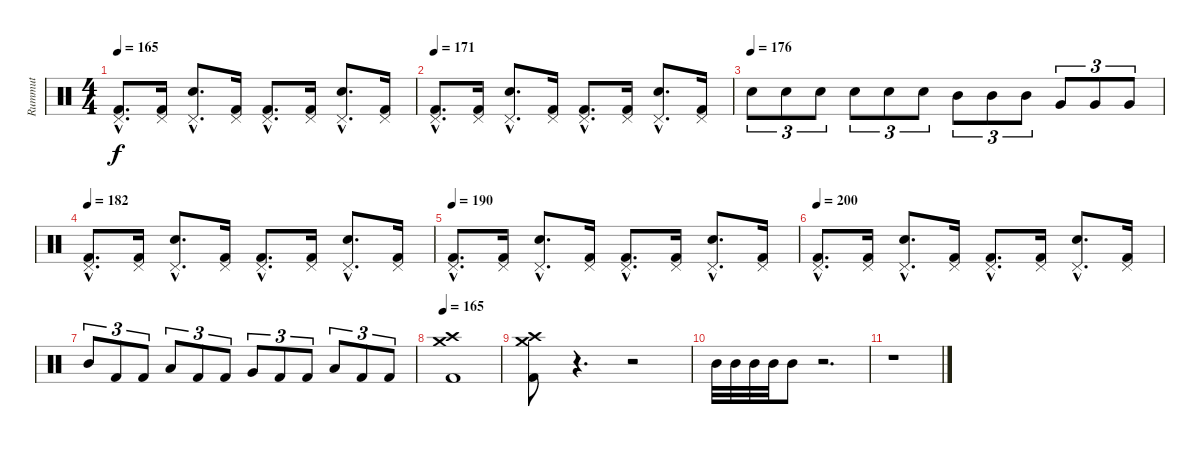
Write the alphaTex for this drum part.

\track ("Rummut" "Rummut") {instrument percussion}
\staff {score}
\articulation defaults
\ts (4 4)
\tempo 165
\clef neutral
\ks c
("Pedal Hi-Hat (hit)"{hac} "Kick (hit) 2"{hac}).8{d dy f} ("Pedal Hi-Hat (hit)" "Kick (hit) 2").16 ("Pedal Hi-Hat (hit)"{hac} "Snare (hit) 2"{hac}).8{d} ("Pedal Hi-Hat (hit)" "Kick (hit) 2").16 ("Pedal Hi-Hat (hit)"{hac} "Kick (hit) 2"{hac}).8{d} ("Pedal Hi-Hat (hit)" "Kick (hit) 2").16 ("Pedal Hi-Hat (hit)"{hac} "Snare (hit) 2"{hac}).8{d} ("Pedal Hi-Hat (hit)" "Kick (hit) 2").16 |
\tempo 171
("Pedal Hi-Hat (hit)"{hac} "Kick (hit) 2"{hac}).8{d} ("Pedal Hi-Hat (hit)" "Kick (hit) 2").16 ("Pedal Hi-Hat (hit)"{hac} "Snare (hit) 2"{hac}).8{d} ("Pedal Hi-Hat (hit)" "Kick (hit) 2").16 ("Pedal Hi-Hat (hit)"{hac} "Kick (hit) 2"{hac}).8{d} ("Pedal Hi-Hat (hit)" "Kick (hit) 2").16 ("Pedal Hi-Hat (hit)"{hac} "Snare (hit) 2"{hac}).8{d} ("Pedal Hi-Hat (hit)" "Kick (hit) 2").16 |
\tempo (176)
"Snare (hit) 2".8{tu (3 2)} "Snare (hit) 2".8{tu (3 2)} "Snare (hit) 2".8{tu (3 2)} "Snare (hit) 2".8{tu (3 2)} "Snare (hit) 2".8{tu (3 2)} "Snare (hit) 2".8{tu (3 2)} "Mid Tom (hit)".8{tu (3 2)} "Mid Tom (hit)".8{tu (3 2)} "Mid Tom (hit)".8{tu (3 2)} "Very Low Tom (hit)".8{tu (3 2)} "Very Low Tom (hit)".8{tu (3 2)} "Very Low Tom (hit)".8{tu (3 2)} |
\tempo 182
("Pedal Hi-Hat (hit)"{hac} "Kick (hit) 2"{hac}).8{d} ("Pedal Hi-Hat (hit)" "Kick (hit) 2").16 ("Pedal Hi-Hat (hit)"{hac} "Snare (hit) 2"{hac}).8{d} ("Pedal Hi-Hat (hit)" "Kick (hit) 2").16 ("Pedal Hi-Hat (hit)"{hac} "Kick (hit) 2"{hac}).8{d} ("Pedal Hi-Hat (hit)" "Kick (hit) 2").16 ("Pedal Hi-Hat (hit)"{hac} "Snare (hit) 2"{hac}).8{d} ("Pedal Hi-Hat (hit)" "Kick (hit) 2").16 |
\tempo 190
("Pedal Hi-Hat (hit)"{hac} "Kick (hit) 2"{hac}).8{d} ("Pedal Hi-Hat (hit)" "Kick (hit) 2").16 ("Pedal Hi-Hat (hit)"{hac} "Snare (hit) 2"{hac}).8{d} ("Pedal Hi-Hat (hit)" "Kick (hit) 2").16 ("Pedal Hi-Hat (hit)"{hac} "Kick (hit) 2"{hac}).8{d} ("Pedal Hi-Hat (hit)" "Kick (hit) 2").16 ("Pedal Hi-Hat (hit)"{hac} "Snare (hit) 2"{hac}).8{d} ("Pedal Hi-Hat (hit)" "Kick (hit) 2").16 |
\tempo 200
("Pedal Hi-Hat (hit)"{hac} "Kick (hit) 2"{hac}).8{d} ("Pedal Hi-Hat (hit)" "Kick (hit) 2").16 ("Pedal Hi-Hat (hit)"{hac} "Snare (hit) 2"{hac}).8{d} ("Pedal Hi-Hat (hit)" "Kick (hit) 2").16 ("Pedal Hi-Hat (hit)"{hac} "Kick (hit) 2"{hac}).8{d} ("Pedal Hi-Hat (hit)" "Kick (hit) 2").16 ("Pedal Hi-Hat (hit)"{hac} "Snare (hit) 2"{hac}).8{d} ("Pedal Hi-Hat (hit)" "Kick (hit) 2").16 |
"Mid Tom (hit)".8{tu (3 2)} "Kick (hit) 2".8{tu (3 2)} "Kick (hit) 2".8{tu (3 2)} "Low Tom (hit)".8{tu (3 2)} "Kick (hit) 2".8{tu (3 2)} "Kick (hit) 2".8{tu (3 2)} "Very Low Tom (hit)".8{tu (3 2)} "Kick (hit) 2".8{tu (3 2)} "Kick (hit) 2".8{tu (3 2)} "Low Floor Tom (hit)".8{tu (3 2)} "Kick (hit) 2".8{tu (3 2)} "Kick (hit) 2".8{tu (3 2)} |
\tempo 165
("Kick (hit) 2" "Crash medium (hit)" "Crash high (hit)").1 |
("Crash high (hit)" "Crash medium (hit)" "Kick (hit) 2").8 r.4{d} r.2 |
"Mid Tom (hit)".32 "Mid Tom (hit)".32 "Mid Tom (hit)".32 "Mid Tom (hit)".32 "Mid Tom (hit)".8 r.2{d} |
r.1
